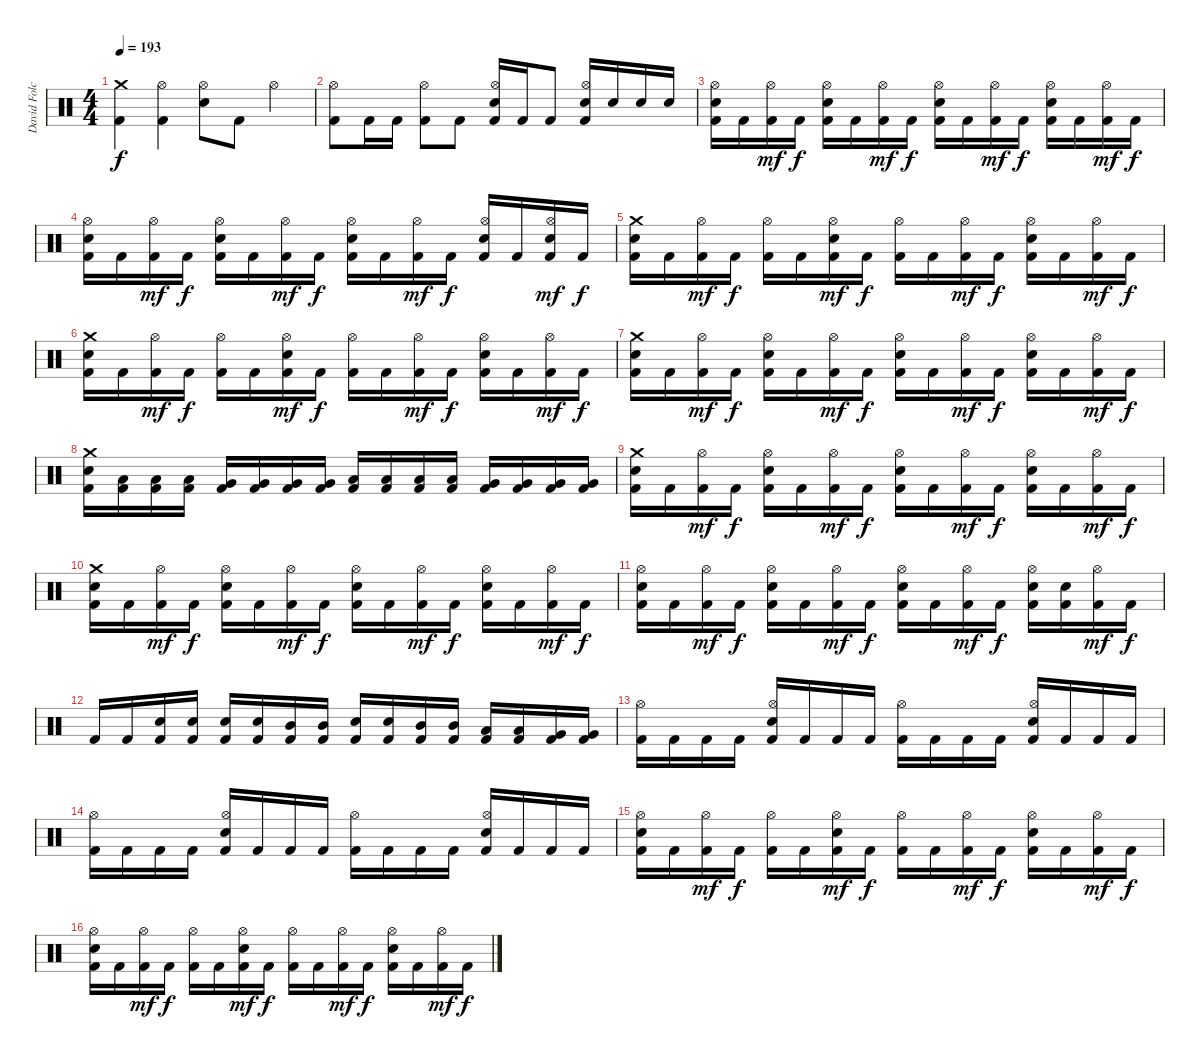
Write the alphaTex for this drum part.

\track ("David Folchitto" "David Folc") {instrument percussion}
\staff {score}
\articulation defaults
\ts (4 4)
\tempo 193
\clef neutral
\ks c
("Crash medium (hit)" "Kick (hit) 2").4{dy f} ("Hi-Hat (open)" "Kick (hit) 2").4 ("Hi-Hat (open)" "Snare (hit) 2").8 "Kick (hit) 2".8 "Hi-Hat (open)".4 |
("Hi-Hat (open)" "Kick (hit) 2").8 "Kick (hit) 2".16 "Kick (hit) 2".16 ("Hi-Hat (open)" "Kick (hit) 2").8 "Kick (hit) 2".8 ("Hi-Hat (open)" "Snare (hit) 2" "Kick (hit) 2").16 "Kick (hit) 2".16 "Kick (hit) 2".8 ("Hi-Hat (open)" "Snare (hit) 2" "Kick (hit) 2").16 "Snare (hit) 2".16 "Snare (hit) 2".16 "Snare (hit) 2".16 |
("Hi-Hat (open)" "Snare (hit) 2" "Kick (hit) 2").16 "Kick (hit) 2".16 ("Hi-Hat (open)" "Kick (hit) 2").16{dy mf} "Kick (hit) 2".16{dy f} ("Hi-Hat (open)" "Snare (hit) 2" "Kick (hit) 2").16 "Kick (hit) 2".16 ("Hi-Hat (open)" "Kick (hit) 2").16{dy mf} "Kick (hit) 2".16{dy f} ("Hi-Hat (open)" "Snare (hit) 2" "Kick (hit) 2").16 "Kick (hit) 2".16 ("Hi-Hat (open)" "Kick (hit) 2").16{dy mf} "Kick (hit) 2".16{dy f} ("Hi-Hat (open)" "Snare (hit) 2" "Kick (hit) 2").16 "Kick (hit) 2".16 ("Hi-Hat (open)" "Kick (hit) 2").16{dy mf} "Kick (hit) 2".16{dy f} |
("Hi-Hat (open)" "Snare (hit) 2" "Kick (hit) 2").16 "Kick (hit) 2".16 ("Hi-Hat (open)" "Kick (hit) 2").16{dy mf} "Kick (hit) 2".16{dy f} ("Hi-Hat (open)" "Snare (hit) 2" "Kick (hit) 2").16 "Kick (hit) 2".16 ("Hi-Hat (open)" "Kick (hit) 2").16{dy mf} "Kick (hit) 2".16{dy f} ("Hi-Hat (open)" "Snare (hit) 2" "Kick (hit) 2").16 "Kick (hit) 2".16 ("Hi-Hat (open)" "Kick (hit) 2").16{dy mf} "Kick (hit) 2".16{dy f} ("Hi-Hat (open)" "Snare (hit) 2" "Kick (hit) 2").16 "Kick (hit) 2".16 ("Hi-Hat (open)" "Snare (hit) 2" "Kick (hit) 2").16{dy mf} "Kick (hit) 2".16{dy f} |
("Crash medium (hit)" "Snare (hit) 2" "Kick (hit) 2").16 "Kick (hit) 2".16 ("Hi-Hat (open)" "Kick (hit) 2").16{dy mf} "Kick (hit) 2".16{dy f} ("Hi-Hat (open)" "Kick (hit) 2").16 "Kick (hit) 2".16 ("Hi-Hat (open)" "Snare (hit) 2" "Kick (hit) 2").16{dy mf} "Kick (hit) 2".16{dy f} ("Hi-Hat (open)" "Kick (hit) 2").16 "Kick (hit) 2".16 ("Hi-Hat (open)" "Kick (hit) 2").16{dy mf} "Kick (hit) 2".16{dy f} ("Hi-Hat (open)" "Snare (hit) 2" "Kick (hit) 2").16 "Kick (hit) 2".16 ("Hi-Hat (open)" "Kick (hit) 2").16{dy mf} "Kick (hit) 2".16{dy f} |
("Crash medium (hit)" "Snare (hit) 2" "Kick (hit) 2").16 "Kick (hit) 2".16 ("Hi-Hat (open)" "Kick (hit) 2").16{dy mf} "Kick (hit) 2".16{dy f} ("Hi-Hat (open)" "Kick (hit) 2").16 "Kick (hit) 2".16 ("Hi-Hat (open)" "Snare (hit) 2" "Kick (hit) 2").16{dy mf} "Kick (hit) 2".16{dy f} ("Hi-Hat (open)" "Kick (hit) 2").16 "Kick (hit) 2".16 ("Hi-Hat (open)" "Kick (hit) 2").16{dy mf} "Kick (hit) 2".16{dy f} ("Hi-Hat (open)" "Snare (hit) 2" "Kick (hit) 2").16 "Kick (hit) 2".16 ("Hi-Hat (open)" "Kick (hit) 2").16{dy mf} "Kick (hit) 2".16{dy f} |
("Crash medium (hit)" "Snare (hit) 2" "Kick (hit) 2").16 "Kick (hit) 2".16 ("Hi-Hat (open)" "Kick (hit) 2").16{dy mf} "Kick (hit) 2".16{dy f} ("Hi-Hat (open)" "Snare (hit) 2" "Kick (hit) 2").16 "Kick (hit) 2".16 ("Hi-Hat (open)" "Kick (hit) 2").16{dy mf} "Kick (hit) 2".16{dy f} ("Hi-Hat (open)" "Snare (hit) 2" "Kick (hit) 2").16 "Kick (hit) 2".16 ("Hi-Hat (open)" "Kick (hit) 2").16{dy mf} "Kick (hit) 2".16{dy f} ("Hi-Hat (open)" "Snare (hit) 2" "Kick (hit) 2").16 "Kick (hit) 2".16 ("Hi-Hat (open)" "Kick (hit) 2").16{dy mf} "Kick (hit) 2".16{dy f} |
("Crash medium (hit)" "Snare (hit) 2" "Kick (hit) 2").16 ("Low Tom (hit)" "Kick (hit) 2").16 ("Low Tom (hit)" "Kick (hit) 2").16 ("Low Tom (hit)" "Kick (hit) 2").16 ("Very Low Tom (hit)" "Kick (hit) 2").16 ("Very Low Tom (hit)" "Kick (hit) 2").16 ("Very Low Tom (hit)" "Kick (hit) 2").16 ("Very Low Tom (hit)" "Kick (hit) 2").16 ("Low Floor Tom (hit)" "Kick (hit) 2").16 ("Low Floor Tom (hit)" "Kick (hit) 2").16 ("Low Floor Tom (hit)" "Kick (hit) 2").16 ("Low Floor Tom (hit)" "Kick (hit) 2").16 ("Very Low Tom (hit)" "Kick (hit) 2").16 ("Very Low Tom (hit)" "Kick (hit) 2").16 ("Very Low Tom (hit)" "Kick (hit) 2").16 ("Very Low Tom (hit)" "Kick (hit) 2").16 |
("Crash medium (hit)" "Snare (hit) 2" "Kick (hit) 2").16 "Kick (hit) 2".16 ("Hi-Hat (open)" "Kick (hit) 2").16{dy mf} "Kick (hit) 2".16{dy f} ("Hi-Hat (open)" "Snare (hit) 2" "Kick (hit) 2").16 "Kick (hit) 2".16 ("Hi-Hat (open)" "Kick (hit) 2").16{dy mf} "Kick (hit) 2".16{dy f} ("Hi-Hat (open)" "Snare (hit) 2" "Kick (hit) 2").16 "Kick (hit) 2".16 ("Hi-Hat (open)" "Kick (hit) 2").16{dy mf} "Kick (hit) 2".16{dy f} ("Hi-Hat (open)" "Snare (hit) 2" "Kick (hit) 2").16 "Kick (hit) 2".16 ("Hi-Hat (open)" "Kick (hit) 2").16{dy mf} "Kick (hit) 2".16{dy f} |
("Crash medium (hit)" "Snare (hit) 2" "Kick (hit) 2").16 "Kick (hit) 2".16 ("Hi-Hat (open)" "Kick (hit) 2").16{dy mf} "Kick (hit) 2".16{dy f} ("Hi-Hat (open)" "Snare (hit) 2" "Kick (hit) 2").16 "Kick (hit) 2".16 ("Hi-Hat (open)" "Kick (hit) 2").16{dy mf} "Kick (hit) 2".16{dy f} ("Hi-Hat (open)" "Snare (hit) 2" "Kick (hit) 2").16 "Kick (hit) 2".16 ("Hi-Hat (open)" "Kick (hit) 2").16{dy mf} "Kick (hit) 2".16{dy f} ("Hi-Hat (open)" "Snare (hit) 2" "Kick (hit) 2").16 "Kick (hit) 2".16 ("Hi-Hat (open)" "Kick (hit) 2").16{dy mf} "Kick (hit) 2".16{dy f} |
("Hi-Hat (open)" "Snare (hit) 2" "Kick (hit) 2").16 "Kick (hit) 2".16 ("Hi-Hat (open)" "Kick (hit) 2").16{dy mf} "Kick (hit) 2".16{dy f} ("Hi-Hat (open)" "Snare (hit) 2" "Kick (hit) 2").16 "Kick (hit) 2".16 ("Hi-Hat (open)" "Kick (hit) 2").16{dy mf} "Kick (hit) 2".16{dy f} ("Hi-Hat (open)" "Snare (hit) 2" "Kick (hit) 2").16 "Kick (hit) 2".16 ("Hi-Hat (open)" "Kick (hit) 2").16{dy mf} "Kick (hit) 2".16{dy f} ("Hi-Hat (open)" "Snare (hit) 2" "Kick (hit) 2").16 ("Snare (hit) 2" "Kick (hit) 2").16 ("Hi-Hat (open)" "Kick (hit) 2").16{dy mf} "Kick (hit) 2".16{dy f} |
"Kick (hit) 2".16 "Kick (hit) 2".16 ("Snare (hit) 2" "Kick (hit) 2").16 ("Snare (hit) 2" "Kick (hit) 2").16 ("Snare (hit) 2" "Kick (hit) 2").16 ("Snare (hit) 2" "Kick (hit) 2").16 ("Mid Tom (hit)" "Kick (hit) 2").16 ("Mid Tom (hit)" "Kick (hit) 2").16 ("Snare (hit) 2" "Kick (hit) 2").16 ("Snare (hit) 2" "Kick (hit) 2").16 ("Mid Tom (hit)" "Kick (hit) 2").16 ("Mid Tom (hit)" "Kick (hit) 2").16 ("Low Tom (hit)" "Kick (hit) 2").16 ("Low Tom (hit)" "Kick (hit) 2").16 ("Very Low Tom (hit)" "Kick (hit) 2").16 ("Very Low Tom (hit)" "Kick (hit) 2").16 |
("Hi-Hat (open)" "Kick (hit) 2").16 "Kick (hit) 2".16 "Kick (hit) 2".16 "Kick (hit) 2".16 ("Hi-Hat (open)" "Snare (hit) 2" "Kick (hit) 2").16 "Kick (hit) 2".16 "Kick (hit) 2".16 "Kick (hit) 2".16 ("Hi-Hat (open)" "Kick (hit) 2").16 "Kick (hit) 2".16 "Kick (hit) 2".16 "Kick (hit) 2".16 ("Hi-Hat (open)" "Snare (hit) 2" "Kick (hit) 2").16 "Kick (hit) 2".16 "Kick (hit) 2".16 "Kick (hit) 2".16 |
("Hi-Hat (open)" "Kick (hit) 2").16 "Kick (hit) 2".16 "Kick (hit) 2".16 "Kick (hit) 2".16 ("Hi-Hat (open)" "Snare (hit) 2" "Kick (hit) 2").16 "Kick (hit) 2".16 "Kick (hit) 2".16 "Kick (hit) 2".16 ("Hi-Hat (open)" "Kick (hit) 2").16 "Kick (hit) 2".16 "Kick (hit) 2".16 "Kick (hit) 2".16 ("Hi-Hat (open)" "Snare (hit) 2" "Kick (hit) 2").16 "Kick (hit) 2".16 "Kick (hit) 2".16 "Kick (hit) 2".16 |
("Hi-Hat (open)" "Snare (hit) 2" "Kick (hit) 2").16 "Kick (hit) 2".16 ("Hi-Hat (open)" "Kick (hit) 2").16{dy mf} "Kick (hit) 2".16{dy f} ("Hi-Hat (open)" "Kick (hit) 2").16 "Kick (hit) 2".16 ("Hi-Hat (open)" "Snare (hit) 2" "Kick (hit) 2").16{dy mf} "Kick (hit) 2".16{dy f} ("Hi-Hat (open)" "Kick (hit) 2").16 "Kick (hit) 2".16 ("Hi-Hat (open)" "Kick (hit) 2").16{dy mf} "Kick (hit) 2".16{dy f} ("Hi-Hat (open)" "Snare (hit) 2" "Kick (hit) 2").16 "Kick (hit) 2".16 ("Hi-Hat (open)" "Kick (hit) 2").16{dy mf} "Kick (hit) 2".16{dy f} |
("Hi-Hat (open)" "Snare (hit) 2" "Kick (hit) 2").16 "Kick (hit) 2".16 ("Hi-Hat (open)" "Kick (hit) 2").16{dy mf} "Kick (hit) 2".16{dy f} ("Hi-Hat (open)" "Kick (hit) 2").16 "Kick (hit) 2".16 ("Hi-Hat (open)" "Snare (hit) 2" "Kick (hit) 2").16{dy mf} "Kick (hit) 2".16{dy f} ("Hi-Hat (open)" "Kick (hit) 2").16 "Kick (hit) 2".16 ("Hi-Hat (open)" "Kick (hit) 2").16{dy mf} "Kick (hit) 2".16{dy f} ("Hi-Hat (open)" "Snare (hit) 2" "Kick (hit) 2").16 "Kick (hit) 2".16 ("Hi-Hat (open)" "Kick (hit) 2").16{dy mf} "Kick (hit) 2".16{dy f}
